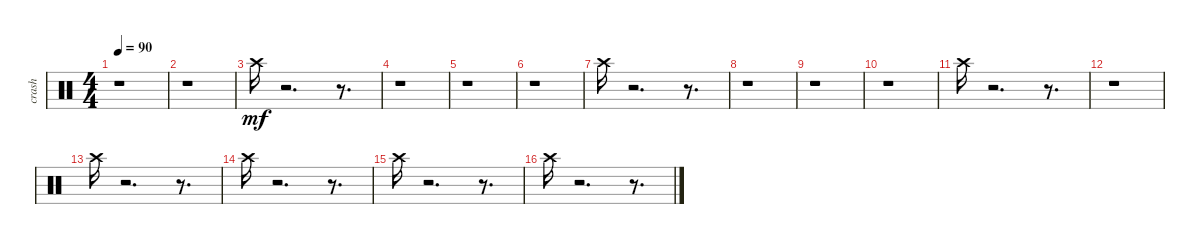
\track ("crash" "crash") {instrument percussion}
\staff {score}
\articulation defaults
\ts (4 4)
\tempo 90
\clef neutral
\ks c
r.1{dy mf} |
r.1 |
"Crash high (hit)".16 r.2{d} r.8{d} |
r.1 |
r.1 |
r.1 |
"Crash high (hit)".16 r.2{d} r.8{d} |
r.1 |
r.1 |
r.1 |
"Crash high (hit)".16 r.2{d} r.8{d} |
r.1 |
"Crash high (hit)".16 r.2{d} r.8{d} |
"Crash high (hit)".16 r.2{d} r.8{d} |
"Crash high (hit)".16 r.2{d} r.8{d} |
"Crash high (hit)".16 r.2{d} r.8{d}
